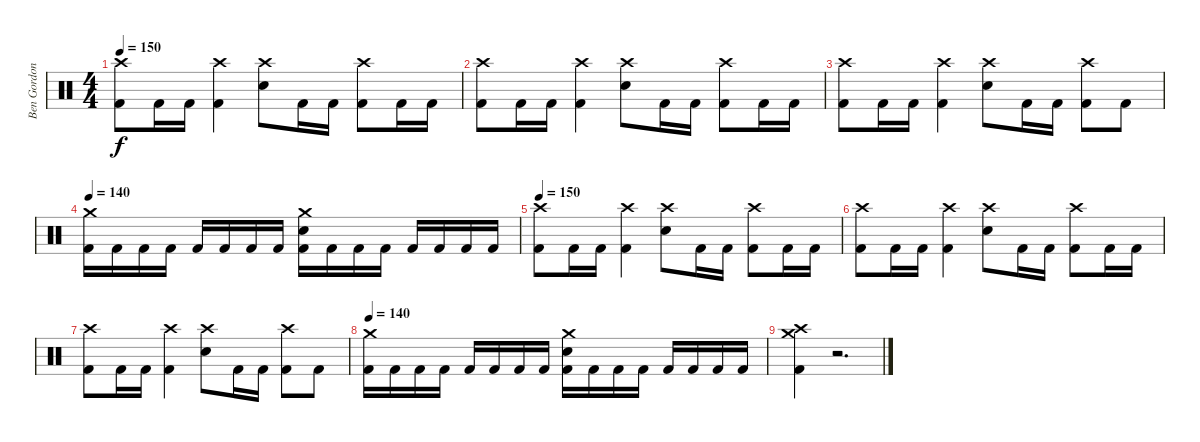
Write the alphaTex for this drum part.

\track ("Ben Gordon" "Ben Gordon") {instrument percussion}
\staff {score}
\articulation defaults
\ts (4 4)
\tempo 150
\clef neutral
\ks c
("Crash high (hit)" "Kick (hit) 2").8{dy f volume 16} "Kick (hit) 2".16 "Kick (hit) 2".16 ("Crash high (hit)" "Kick (hit) 2").4 ("Crash high (hit)" "Snare (hit) 2").8 "Kick (hit) 2".16 "Kick (hit) 2".16 ("Crash high (hit)" "Kick (hit) 2").8 "Kick (hit) 2".16 "Kick (hit) 2".16 |
("Crash high (hit)" "Kick (hit) 2").8 "Kick (hit) 2".16 "Kick (hit) 2".16 ("Crash high (hit)" "Kick (hit) 2").4 ("Crash high (hit)" "Snare (hit) 2").8 "Kick (hit) 2".16 "Kick (hit) 2".16 ("Crash high (hit)" "Kick (hit) 2").8 "Kick (hit) 2".16 "Kick (hit) 2".16 |
("Crash high (hit)" "Kick (hit) 2").8 "Kick (hit) 2".16 "Kick (hit) 2".16 ("Crash high (hit)" "Kick (hit) 2").4 ("Crash high (hit)" "Snare (hit) 2").8 "Kick (hit) 2".16 "Kick (hit) 2".16 ("Crash high (hit)" "Kick (hit) 2").8 "Kick (hit) 2".8 |
\tempo 140
("Crash medium (hit)" "Kick (hit) 2").16 "Kick (hit) 2".16 "Kick (hit) 2".16 "Kick (hit) 2".16 "Kick (hit) 2".16 "Kick (hit) 2".16 "Kick (hit) 2".16 "Kick (hit) 2".16 ("Crash medium (hit)" "Snare (hit) 2" "Kick (hit) 2").16 "Kick (hit) 2".16 "Kick (hit) 2".16 "Kick (hit) 2".16 "Kick (hit) 2".16 "Kick (hit) 2".16 "Kick (hit) 2".16 "Kick (hit) 2".16 |
\tempo 150
("Crash high (hit)" "Kick (hit) 2").8{volume 16} "Kick (hit) 2".16 "Kick (hit) 2".16 ("Crash high (hit)" "Kick (hit) 2").4 ("Crash high (hit)" "Snare (hit) 2").8 "Kick (hit) 2".16 "Kick (hit) 2".16 ("Crash high (hit)" "Kick (hit) 2").8 "Kick (hit) 2".16 "Kick (hit) 2".16 |
("Crash high (hit)" "Kick (hit) 2").8 "Kick (hit) 2".16 "Kick (hit) 2".16 ("Crash high (hit)" "Kick (hit) 2").4 ("Crash high (hit)" "Snare (hit) 2").8 "Kick (hit) 2".16 "Kick (hit) 2".16 ("Crash high (hit)" "Kick (hit) 2").8 "Kick (hit) 2".16 "Kick (hit) 2".16 |
("Crash high (hit)" "Kick (hit) 2").8 "Kick (hit) 2".16 "Kick (hit) 2".16 ("Crash high (hit)" "Kick (hit) 2").4 ("Crash high (hit)" "Snare (hit) 2").8 "Kick (hit) 2".16 "Kick (hit) 2".16 ("Crash high (hit)" "Kick (hit) 2").8 "Kick (hit) 2".8 |
\tempo 140
("Crash medium (hit)" "Kick (hit) 2").16 "Kick (hit) 2".16 "Kick (hit) 2".16 "Kick (hit) 2".16 "Kick (hit) 2".16 "Kick (hit) 2".16 "Kick (hit) 2".16 "Kick (hit) 2".16 ("Crash medium (hit)" "Snare (hit) 2" "Kick (hit) 2").16 "Kick (hit) 2".16 "Kick (hit) 2".16 "Kick (hit) 2".16 "Kick (hit) 2".16 "Kick (hit) 2".16 "Kick (hit) 2".16 "Kick (hit) 2".16 |
("Crash medium (hit)" "Crash high (hit)" "Kick (hit) 2").4 r.2{d}
